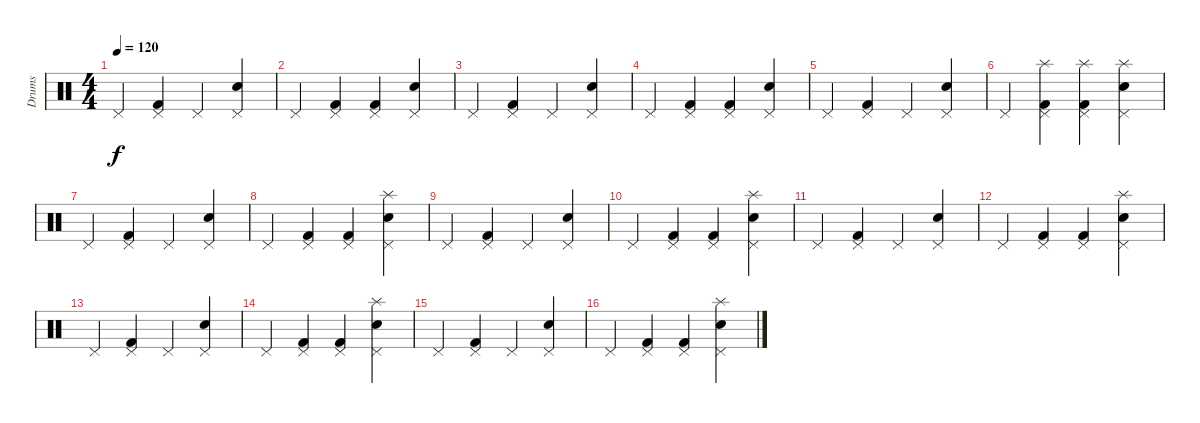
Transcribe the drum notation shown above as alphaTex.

\track ("Drums" "Drums") {instrument percussion}
\staff {score}
\articulation defaults
\ts (4 4)
\tempo 120
\clef neutral
\ks c "Pedal Hi-Hat (hit)".4{dy f}
("Pedal Hi-Hat (hit)" "Kick (hit) 2").4 "Pedal Hi-Hat (hit)".4 ("Pedal Hi-Hat (hit)" "Snare (hit) 2").4 |
"Pedal Hi-Hat (hit)".4 ("Pedal Hi-Hat (hit)" "Kick (hit) 2").4 ("Pedal Hi-Hat (hit)" "Kick (hit) 2").4 ("Pedal Hi-Hat (hit)" "Snare (hit) 2").4 |
"Pedal Hi-Hat (hit)".4 ("Pedal Hi-Hat (hit)" "Kick (hit) 2").4 "Pedal Hi-Hat (hit)".4 ("Pedal Hi-Hat (hit)" "Snare (hit) 2").4 |
"Pedal Hi-Hat (hit)".4 ("Pedal Hi-Hat (hit)" "Kick (hit) 2").4 ("Pedal Hi-Hat (hit)" "Kick (hit) 2").4 ("Pedal Hi-Hat (hit)" "Snare (hit) 2").4 |
"Pedal Hi-Hat (hit)".4 ("Pedal Hi-Hat (hit)" "Kick (hit) 2").4 "Pedal Hi-Hat (hit)".4 ("Pedal Hi-Hat (hit)" "Snare (hit) 2").4 |
"Pedal Hi-Hat (hit)".4 ("Pedal Hi-Hat (hit)" "Splash (hit)" "Kick (hit) 2").4 ("Pedal Hi-Hat (hit)" "Splash (hit)" "Kick (hit) 2").4 ("Pedal Hi-Hat (hit)" "Splash (hit)" "Snare (hit) 2").4 |
"Pedal Hi-Hat (hit)".4 ("Pedal Hi-Hat (hit)" "Kick (hit) 2").4 "Pedal Hi-Hat (hit)".4 ("Pedal Hi-Hat (hit)" "Snare (hit) 2").4 |
"Pedal Hi-Hat (hit)".4 ("Pedal Hi-Hat (hit)" "Kick (hit) 2").4 ("Pedal Hi-Hat (hit)" "Kick (hit) 2").4 ("Pedal Hi-Hat (hit)" "Splash (hit)" "Snare (hit) 2").4 |
"Pedal Hi-Hat (hit)".4 ("Pedal Hi-Hat (hit)" "Kick (hit) 2").4 "Pedal Hi-Hat (hit)".4 ("Pedal Hi-Hat (hit)" "Snare (hit) 2").4 |
"Pedal Hi-Hat (hit)".4 ("Pedal Hi-Hat (hit)" "Kick (hit) 2").4 ("Pedal Hi-Hat (hit)" "Kick (hit) 2").4 ("Pedal Hi-Hat (hit)" "Splash (hit)" "Snare (hit) 2").4 |
"Pedal Hi-Hat (hit)".4 ("Pedal Hi-Hat (hit)" "Kick (hit) 2").4 "Pedal Hi-Hat (hit)".4 ("Pedal Hi-Hat (hit)" "Snare (hit) 2").4 |
"Pedal Hi-Hat (hit)".4 ("Pedal Hi-Hat (hit)" "Kick (hit) 2").4 ("Pedal Hi-Hat (hit)" "Kick (hit) 2").4 ("Pedal Hi-Hat (hit)" "Splash (hit)" "Snare (hit) 2").4 |
"Pedal Hi-Hat (hit)".4 ("Pedal Hi-Hat (hit)" "Kick (hit) 2").4 "Pedal Hi-Hat (hit)".4 ("Pedal Hi-Hat (hit)" "Snare (hit) 2").4 |
"Pedal Hi-Hat (hit)".4 ("Pedal Hi-Hat (hit)" "Kick (hit) 2").4 ("Pedal Hi-Hat (hit)" "Kick (hit) 2").4 ("Pedal Hi-Hat (hit)" "Splash (hit)" "Snare (hit) 2").4 |
"Pedal Hi-Hat (hit)".4 ("Pedal Hi-Hat (hit)" "Kick (hit) 2").4 "Pedal Hi-Hat (hit)".4 ("Pedal Hi-Hat (hit)" "Snare (hit) 2").4 |
"Pedal Hi-Hat (hit)".4 ("Pedal Hi-Hat (hit)" "Kick (hit) 2").4 ("Pedal Hi-Hat (hit)" "Kick (hit) 2").4 ("Pedal Hi-Hat (hit)" "Splash (hit)" "Snare (hit) 2").4
